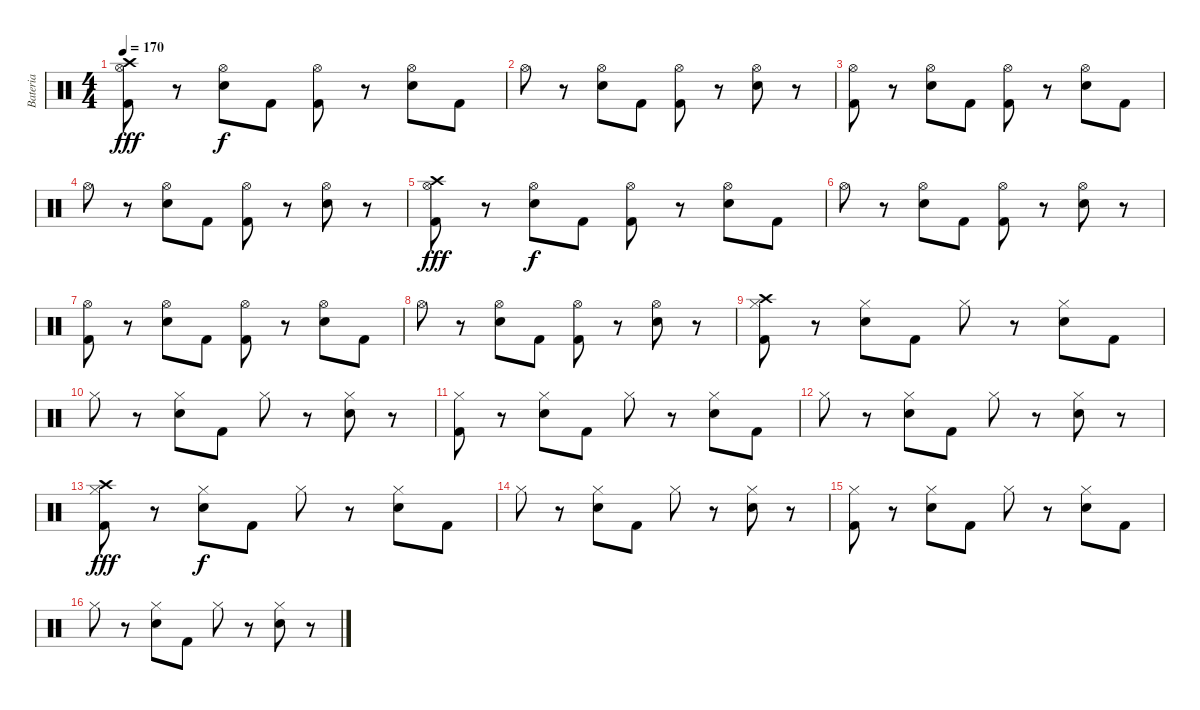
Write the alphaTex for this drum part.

\track ("Bateria" "Bateria") {instrument percussion}
\staff {score}
\articulation defaults
\ts (4 4)
\tempo 170
\clef neutral
\ks c
("Kick (hit) 2" "Hi-Hat (open)" "Crash high (hit)").8{dy fff} r.8 ("Snare (hit) 2" "Hi-Hat (open)").8{dy f} "Kick (hit) 2".8 ("Kick (hit) 2" "Hi-Hat (open)").8 r.8 ("Snare (hit) 2" "Hi-Hat (open)").8 "Kick (hit) 2".8 |
"Hi-Hat (open)".8 r.8 ("Snare (hit) 2" "Hi-Hat (open)").8 "Kick (hit) 2".8 ("Kick (hit) 2" "Hi-Hat (open)").8 r.8 ("Snare (hit) 2" "Hi-Hat (open)").8 r.8 |
("Kick (hit) 2" "Hi-Hat (open)").8 r.8 ("Snare (hit) 2" "Hi-Hat (open)").8 "Kick (hit) 2".8 ("Kick (hit) 2" "Hi-Hat (open)").8 r.8 ("Snare (hit) 2" "Hi-Hat (open)").8 "Kick (hit) 2".8 |
"Hi-Hat (open)".8 r.8 ("Snare (hit) 2" "Hi-Hat (open)").8 "Kick (hit) 2".8 ("Kick (hit) 2" "Hi-Hat (open)").8 r.8 ("Snare (hit) 2" "Hi-Hat (open)").8 r.8 |
("Kick (hit) 2" "Hi-Hat (open)" "Crash high (hit)").8{dy fff} r.8 ("Snare (hit) 2" "Hi-Hat (open)").8{dy f} "Kick (hit) 2".8 ("Kick (hit) 2" "Hi-Hat (open)").8 r.8 ("Snare (hit) 2" "Hi-Hat (open)").8 "Kick (hit) 2".8 |
"Hi-Hat (open)".8 r.8 ("Snare (hit) 2" "Hi-Hat (open)").8 "Kick (hit) 2".8 ("Kick (hit) 2" "Hi-Hat (open)").8 r.8 ("Snare (hit) 2" "Hi-Hat (open)").8 r.8 |
("Kick (hit) 2" "Hi-Hat (open)").8 r.8 ("Snare (hit) 2" "Hi-Hat (open)").8 "Kick (hit) 2".8 ("Kick (hit) 2" "Hi-Hat (open)").8 r.8 ("Snare (hit) 2" "Hi-Hat (open)").8 "Kick (hit) 2".8 |
"Hi-Hat (open)".8 r.8 ("Snare (hit) 2" "Hi-Hat (open)").8 "Kick (hit) 2".8 ("Kick (hit) 2" "Hi-Hat (open)").8 r.8 ("Snare (hit) 2" "Hi-Hat (open)").8 r.8 |
("Kick (hit) 2" "Hi-Hat (closed)" "Crash high (hit)").8 r.8 ("Snare (hit) 2" "Hi-Hat (closed)").8 "Kick (hit) 2".8 "Hi-Hat (closed)".8 r.8 ("Snare (hit) 2" "Hi-Hat (closed)").8 "Kick (hit) 2".8 |
"Hi-Hat (closed)".8 r.8 ("Snare (hit) 2" "Hi-Hat (closed)").8 "Kick (hit) 2".8 "Hi-Hat (closed)".8 r.8 ("Snare (hit) 2" "Hi-Hat (closed)").8 r.8 |
("Kick (hit) 2" "Hi-Hat (closed)").8 r.8 ("Snare (hit) 2" "Hi-Hat (closed)").8 "Kick (hit) 2".8 "Hi-Hat (closed)".8 r.8 ("Snare (hit) 2" "Hi-Hat (closed)").8 "Kick (hit) 2".8 |
"Hi-Hat (closed)".8 r.8 ("Snare (hit) 2" "Hi-Hat (closed)").8 "Kick (hit) 2".8 "Hi-Hat (closed)".8 r.8 ("Snare (hit) 2" "Hi-Hat (closed)").8 r.8 |
("Kick (hit) 2" "Hi-Hat (closed)" "Crash high (hit)").8{dy fff} r.8 ("Snare (hit) 2" "Hi-Hat (closed)").8{dy f} "Kick (hit) 2".8 "Hi-Hat (closed)".8 r.8 ("Snare (hit) 2" "Hi-Hat (closed)").8 "Kick (hit) 2".8 |
"Hi-Hat (closed)".8 r.8 ("Snare (hit) 2" "Hi-Hat (closed)").8 "Kick (hit) 2".8 "Hi-Hat (closed)".8 r.8 ("Snare (hit) 2" "Hi-Hat (closed)").8 r.8 |
("Kick (hit) 2" "Hi-Hat (closed)").8 r.8 ("Snare (hit) 2" "Hi-Hat (closed)").8 "Kick (hit) 2".8 "Hi-Hat (closed)".8 r.8 ("Snare (hit) 2" "Hi-Hat (closed)").8 "Kick (hit) 2".8 |
"Hi-Hat (closed)".8 r.8 ("Snare (hit) 2" "Hi-Hat (closed)").8 "Kick (hit) 2".8 "Hi-Hat (closed)".8 r.8 ("Snare (hit) 2" "Hi-Hat (closed)").8 r.8
